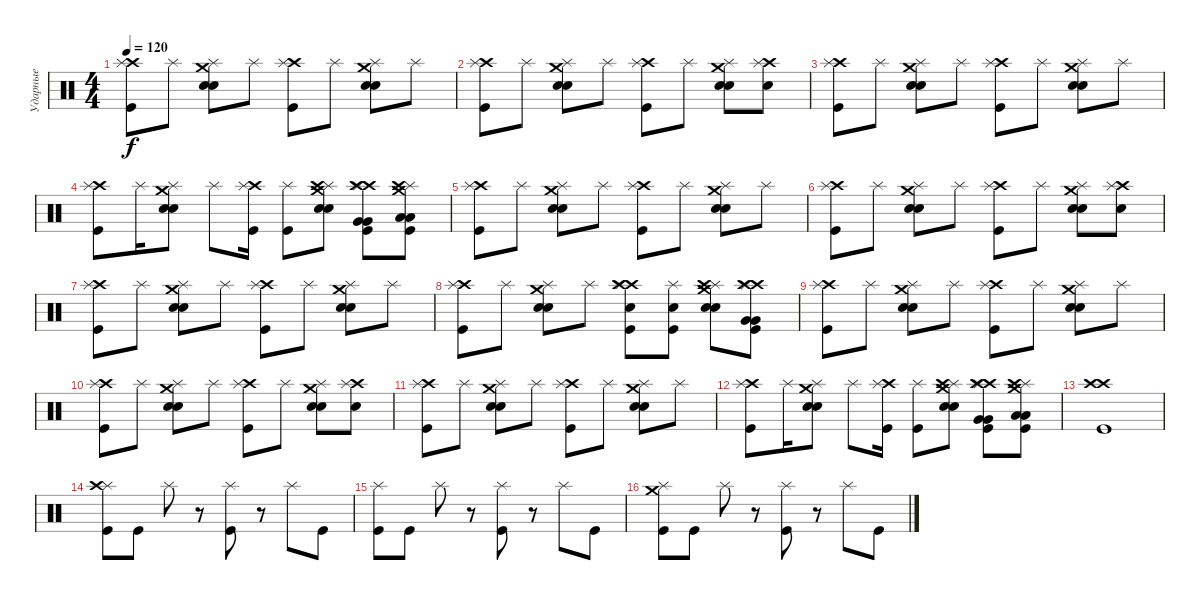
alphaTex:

\track ("Ударные" "Ударные") {instrument percussion}
\staff {score}
\articulation defaults
\ts (4 4)
\tempo 120
\clef neutral
\ks c
("Crash high (hit)" "Splash (hit)" "Kick (hit)").8{dy f} "Splash (hit)".8 ("Crash medium (hit)" "Splash (hit)" "Electric Snare (hit)" "Electric Snare (hit)").8 "Splash (hit)".8 ("Crash high (hit)" "Splash (hit)" "Kick (hit)").8 "Splash (hit)".8 ("Crash medium (hit)" "Splash (hit)" "Electric Snare (hit)" "Electric Snare (hit)").8 "Splash (hit)".8 |
("Crash high (hit)" "Splash (hit)" "Kick (hit)").8 "Splash (hit)".8 ("Crash medium (hit)" "Splash (hit)" "Electric Snare (hit)" "Electric Snare (hit)").8 "Splash (hit)".8 ("Crash high (hit)" "Splash (hit)" "Kick (hit)").8 "Splash (hit)".8 ("Crash medium (hit)" "Splash (hit)" "Electric Snare (hit)" "Electric Snare (hit)").8 ("Crash high (hit)" "Splash (hit)" "Electric Snare (hit)").8 |
("Crash high (hit)" "Splash (hit)" "Kick (hit)").8 "Splash (hit)".8 ("Crash medium (hit)" "Splash (hit)" "Electric Snare (hit)" "Electric Snare (hit)").8 "Splash (hit)".8 ("Crash high (hit)" "Splash (hit)" "Kick (hit)").8 "Splash (hit)".8 ("Crash medium (hit)" "Splash (hit)" "Electric Snare (hit)" "Electric Snare (hit)").8 "Splash (hit)".8 |
("Crash high (hit)" "Splash (hit)" "Kick (hit)").8 "Splash (hit)".16 ("Crash medium (hit)" "Splash (hit)" "Electric Snare (hit)" "Electric Snare (hit)").8 "Splash (hit)".8 ("Crash high (hit)" "Splash (hit)" "Kick (hit)").16 ("Splash (hit)" "Kick (hit)").8 ("Crash medium (hit)" "Splash (hit)" "Crash high (hit)" "Electric Snare (hit)" "Electric Snare (hit)").8 ("Crash high (hit)" "Splash (hit)" "Crash high (hit)" "Very Low Tom (hit)" "Very Low Tom (hit)" "Kick (hit)").8 ("Crash medium (hit)" "Splash (hit)" "Crash high (hit)" "Low Floor Tom (hit)" "Low Floor Tom (hit)" "Kick (hit)").8 |
("Crash high (hit)" "Splash (hit)" "Kick (hit)").8 "Splash (hit)".8 ("Crash medium (hit)" "Splash (hit)" "Electric Snare (hit)" "Electric Snare (hit)").8 "Splash (hit)".8 ("Crash high (hit)" "Splash (hit)" "Kick (hit)").8 "Splash (hit)".8 ("Crash medium (hit)" "Splash (hit)" "Electric Snare (hit)" "Electric Snare (hit)").8 "Splash (hit)".8 |
("Crash high (hit)" "Splash (hit)" "Kick (hit)").8 "Splash (hit)".8 ("Crash medium (hit)" "Splash (hit)" "Electric Snare (hit)" "Electric Snare (hit)").8 "Splash (hit)".8 ("Crash high (hit)" "Splash (hit)" "Kick (hit)").8 "Splash (hit)".8 ("Crash medium (hit)" "Splash (hit)" "Electric Snare (hit)" "Electric Snare (hit)").8 ("Crash high (hit)" "Splash (hit)" "Electric Snare (hit)").8 |
("Crash high (hit)" "Splash (hit)" "Kick (hit)").8 "Splash (hit)".8 ("Crash medium (hit)" "Splash (hit)" "Electric Snare (hit)" "Electric Snare (hit)").8 "Splash (hit)".8 ("Crash high (hit)" "Splash (hit)" "Kick (hit)").8 "Splash (hit)".8 ("Crash medium (hit)" "Splash (hit)" "Electric Snare (hit)" "Electric Snare (hit)").8 "Splash (hit)".8 |
("Crash high (hit)" "Splash (hit)" "Kick (hit)").8 "Splash (hit)".8 ("Crash medium (hit)" "Splash (hit)" "Electric Snare (hit)" "Electric Snare (hit)").8 "Splash (hit)".8 ("Crash high (hit)" "Splash (hit)" "Crash high (hit)" "Electric Snare (hit)" "Kick (hit)").8 ("Splash (hit)" "Electric Snare (hit)" "Kick (hit)").8 ("Crash medium (hit)" "Splash (hit)" "Crash high (hit)" "Electric Snare (hit)" "Electric Snare (hit)").8 ("Crash high (hit)" "Splash (hit)" "Crash high (hit)" "Very Low Tom (hit)" "Very Low Tom (hit)" "Kick (hit)").8 |
("Crash high (hit)" "Splash (hit)" "Kick (hit)").8 "Splash (hit)".8 ("Crash medium (hit)" "Splash (hit)" "Electric Snare (hit)" "Electric Snare (hit)").8 "Splash (hit)".8 ("Crash high (hit)" "Splash (hit)" "Kick (hit)").8 "Splash (hit)".8 ("Crash medium (hit)" "Splash (hit)" "Electric Snare (hit)" "Electric Snare (hit)").8 "Splash (hit)".8 |
("Crash high (hit)" "Splash (hit)" "Kick (hit)").8 "Splash (hit)".8 ("Crash medium (hit)" "Splash (hit)" "Electric Snare (hit)" "Electric Snare (hit)").8 "Splash (hit)".8 ("Crash high (hit)" "Splash (hit)" "Kick (hit)").8 "Splash (hit)".8 ("Crash medium (hit)" "Splash (hit)" "Electric Snare (hit)" "Electric Snare (hit)").8 ("Crash high (hit)" "Splash (hit)" "Electric Snare (hit)").8 |
("Crash high (hit)" "Splash (hit)" "Kick (hit)").8 "Splash (hit)".8 ("Crash medium (hit)" "Splash (hit)" "Electric Snare (hit)" "Electric Snare (hit)").8 "Splash (hit)".8 ("Crash high (hit)" "Splash (hit)" "Kick (hit)").8 "Splash (hit)".8 ("Crash medium (hit)" "Splash (hit)" "Electric Snare (hit)" "Electric Snare (hit)").8 "Splash (hit)".8 |
("Crash high (hit)" "Splash (hit)" "Kick (hit)").8 "Splash (hit)".16 ("Crash medium (hit)" "Splash (hit)" "Electric Snare (hit)" "Electric Snare (hit)").8 "Splash (hit)".8 ("Crash high (hit)" "Splash (hit)" "Kick (hit)").16 ("Splash (hit)" "Kick (hit)").8 ("Crash medium (hit)" "Splash (hit)" "Crash high (hit)" "Electric Snare (hit)" "Electric Snare (hit)").8 ("Crash high (hit)" "Splash (hit)" "Crash high (hit)" "Very Low Tom (hit)" "Very Low Tom (hit)" "Kick (hit)").8 ("Crash medium (hit)" "Splash (hit)" "Crash high (hit)" "Low Floor Tom (hit)" "Low Floor Tom (hit)" "Kick (hit)").8 |
("Crash high (hit)" "Crash high (hit)" "Kick (hit)").1 |
("Splash (hit)" "Crash high (hit)" "Kick (hit)").8 "Kick (hit)".8 "Splash (hit)".8 r.8 ("Splash (hit)" "Kick (hit)").8 r.8 "Splash (hit)".8 "Kick (hit)".8 |
("Splash (hit)" "Kick (hit)").8 "Kick (hit)".8 "Splash (hit)".8 r.8 ("Splash (hit)" "Kick (hit)").8 r.8 "Splash (hit)".8 "Kick (hit)".8 |
("Splash (hit)" "Crash medium (hit)" "Kick (hit)").8 "Kick (hit)".8 "Splash (hit)".8 r.8 ("Splash (hit)" "Kick (hit)").8 r.8 "Splash (hit)".8 "Kick (hit)".8
